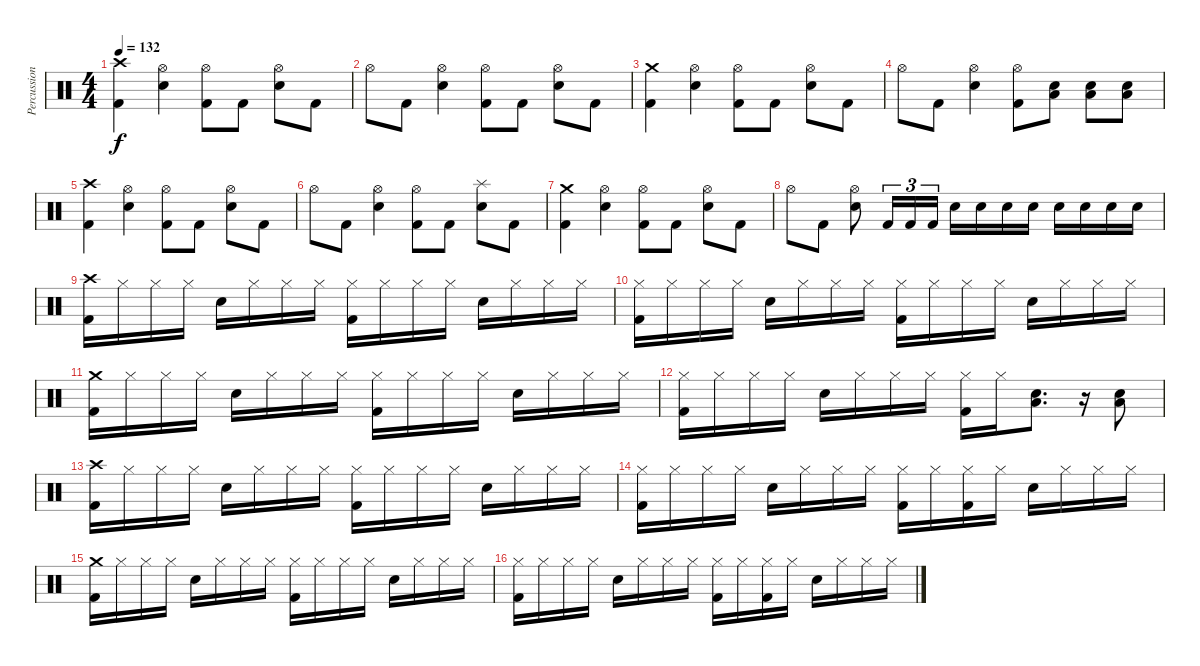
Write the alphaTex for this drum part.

\track ("Percussion" "Percussion") {instrument percussion}
\staff {score}
\articulation defaults
\ts (4 4)
\tempo 132
\clef neutral
\ks c
("Crash high (hit)" "Kick (hit) 2").4{dy f} ("Hi-Hat (open)" "Electric Snare (hit)").4 ("Hi-Hat (open)" "Kick (hit) 2").8 "Kick (hit) 2".8 ("Hi-Hat (open)" "Electric Snare (hit)").8 "Kick (hit) 2".8 |
"Hi-Hat (open)".8 "Kick (hit) 2".8 ("Hi-Hat (open)" "Electric Snare (hit)").4 ("Hi-Hat (open)" "Kick (hit) 2").8 "Kick (hit) 2".8 ("Hi-Hat (open)" "Electric Snare (hit)").8 "Kick (hit) 2".8 |
("Crash medium (hit)" "Kick (hit) 2").4 ("Hi-Hat (open)" "Electric Snare (hit)").4 ("Hi-Hat (open)" "Kick (hit) 2").8 "Kick (hit) 2".8 ("Hi-Hat (open)" "Electric Snare (hit)").8 "Kick (hit) 2".8 |
"Hi-Hat (open)".8 "Kick (hit) 2".8 ("Hi-Hat (open)" "Electric Snare (hit)").4 ("Hi-Hat (open)" "Kick (hit) 2").8 ("Electric Snare (hit)" "Low Floor Tom (hit)").8 ("Electric Snare (hit)" "Low Floor Tom (hit)").8 ("Electric Snare (hit)" "Low Floor Tom (hit)").8 |
("Crash high (hit)" "Kick (hit) 2").4 ("Hi-Hat (open)" "Electric Snare (hit)").4 ("Hi-Hat (open)" "Kick (hit) 2").8 "Kick (hit) 2".8 ("Hi-Hat (open)" "Electric Snare (hit)").8 "Kick (hit) 2".8 |
"Hi-Hat (open)".8 "Kick (hit) 2".8 ("Hi-Hat (open)" "Electric Snare (hit)").4 ("Hi-Hat (open)" "Kick (hit) 2").8 "Kick (hit) 2".8 ("Splash (hit)" "Electric Snare (hit)").8 "Kick (hit) 2".8 |
("Crash medium (hit)" "Kick (hit) 2").4 ("Hi-Hat (open)" "Electric Snare (hit)").4 ("Hi-Hat (open)" "Kick (hit) 2").8 "Kick (hit) 2".8 ("Hi-Hat (open)" "Electric Snare (hit)").8 "Kick (hit) 2".8 |
"Hi-Hat (open)".8 "Kick (hit) 2".8 ("Hi-Hat (open)" "Electric Snare (hit)").8 "Kick (hit) 2".16{tu (3 2)} "Kick (hit) 2".16{tu (3 2)} "Kick (hit) 2".16{tu (3 2)} "Electric Snare (hit)".16 "Electric Snare (hit)".16 "Electric Snare (hit)".16 "Electric Snare (hit)".16 "Electric Snare (hit)".16 "Electric Snare (hit)".16 "Electric Snare (hit)".16 "Electric Snare (hit)".16 |
("Crash high (hit)" "Kick (hit) 2").16 "Hi-Hat (closed)".16 "Hi-Hat (closed)".16 "Hi-Hat (closed)".16 "Electric Snare (hit)".16 "Hi-Hat (closed)".16 "Hi-Hat (closed)".16 "Hi-Hat (closed)".16 ("Hi-Hat (closed)" "Kick (hit) 2").16 "Hi-Hat (closed)".16 "Hi-Hat (closed)".16 "Hi-Hat (closed)".16 "Electric Snare (hit)".16 "Hi-Hat (closed)".16 "Hi-Hat (closed)".16 "Hi-Hat (closed)".16 |
("Hi-Hat (closed)" "Kick (hit) 2").16 "Hi-Hat (closed)".16 "Hi-Hat (closed)".16 "Hi-Hat (closed)".16 "Electric Snare (hit)".16 "Hi-Hat (closed)".16 "Hi-Hat (closed)".16 "Hi-Hat (closed)".16 ("Hi-Hat (closed)" "Kick (hit) 2").16 "Hi-Hat (closed)".16 "Hi-Hat (closed)".16 "Hi-Hat (closed)".16 "Electric Snare (hit)".16 "Hi-Hat (closed)".16 "Hi-Hat (closed)".16 "Hi-Hat (closed)".16 |
("Crash medium (hit)" "Kick (hit) 2").16 "Hi-Hat (closed)".16 "Hi-Hat (closed)".16 "Hi-Hat (closed)".16 "Electric Snare (hit)".16 "Hi-Hat (closed)".16 "Hi-Hat (closed)".16 "Hi-Hat (closed)".16 ("Hi-Hat (closed)" "Kick (hit) 2").16 "Hi-Hat (closed)".16 "Hi-Hat (closed)".16 "Hi-Hat (closed)".16 "Electric Snare (hit)".16 "Hi-Hat (closed)".16 "Hi-Hat (closed)".16 "Hi-Hat (closed)".16 |
("Hi-Hat (closed)" "Kick (hit) 2").16 "Hi-Hat (closed)".16 "Hi-Hat (closed)".16 "Hi-Hat (closed)".16 "Electric Snare (hit)".16 "Hi-Hat (closed)".16 "Hi-Hat (closed)".16 "Hi-Hat (closed)".16 ("Hi-Hat (closed)" "Kick (hit) 2").16 "Hi-Hat (closed)".16 ("Electric Snare (hit)" "Low Floor Tom (hit)").8{d} r.16 ("Electric Snare (hit)" "Low Floor Tom (hit)").8 |
("Crash high (hit)" "Kick (hit) 2").16 "Hi-Hat (closed)".16 "Hi-Hat (closed)".16 "Hi-Hat (closed)".16 "Electric Snare (hit)".16 "Hi-Hat (closed)".16 "Hi-Hat (closed)".16 "Hi-Hat (closed)".16 ("Hi-Hat (closed)" "Kick (hit) 2").16 "Hi-Hat (closed)".16 "Hi-Hat (closed)".16 "Hi-Hat (closed)".16 "Electric Snare (hit)".16 "Hi-Hat (closed)".16 "Hi-Hat (closed)".16 "Hi-Hat (closed)".16 |
("Hi-Hat (closed)" "Kick (hit) 2").16 "Hi-Hat (closed)".16 "Hi-Hat (closed)".16 "Hi-Hat (closed)".16 "Electric Snare (hit)".16 "Hi-Hat (closed)".16 "Hi-Hat (closed)".16 "Hi-Hat (closed)".16 ("Hi-Hat (closed)" "Kick (hit) 2").16 "Hi-Hat (closed)".16 ("Hi-Hat (closed)" "Kick (hit) 2").16 "Hi-Hat (closed)".16 "Electric Snare (hit)".16 "Hi-Hat (closed)".16 "Hi-Hat (closed)".16 "Hi-Hat (closed)".16 |
("Crash medium (hit)" "Kick (hit) 2").16 "Hi-Hat (closed)".16 "Hi-Hat (closed)".16 "Hi-Hat (closed)".16 "Electric Snare (hit)".16 "Hi-Hat (closed)".16 "Hi-Hat (closed)".16 "Hi-Hat (closed)".16 ("Hi-Hat (closed)" "Kick (hit) 2").16 "Hi-Hat (closed)".16 "Hi-Hat (closed)".16 "Hi-Hat (closed)".16 "Electric Snare (hit)".16 "Hi-Hat (closed)".16 "Hi-Hat (closed)".16 "Hi-Hat (closed)".16 |
("Hi-Hat (closed)" "Kick (hit) 2").16 "Hi-Hat (closed)".16 "Hi-Hat (closed)".16 "Hi-Hat (closed)".16 "Electric Snare (hit)".16 "Hi-Hat (closed)".16 "Hi-Hat (closed)".16 "Hi-Hat (closed)".16 ("Hi-Hat (closed)" "Kick (hit) 2").16 "Hi-Hat (closed)".16 ("Hi-Hat (closed)" "Kick (hit) 2").16 "Hi-Hat (closed)".16 "Electric Snare (hit)".16 "Hi-Hat (closed)".16 "Hi-Hat (closed)".16 "Hi-Hat (closed)".16
